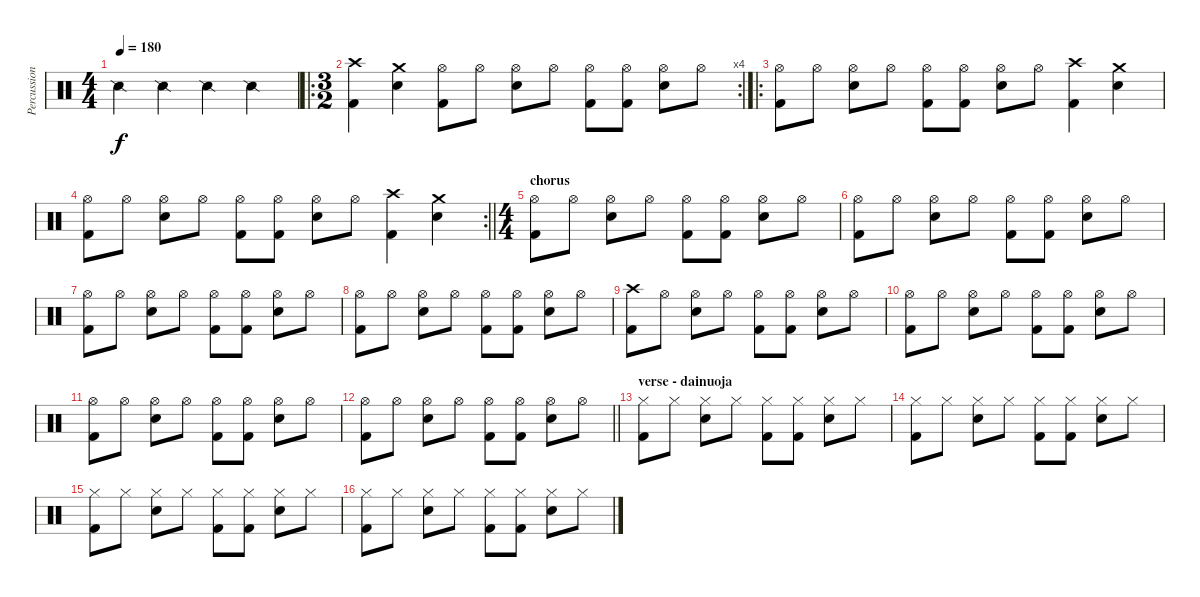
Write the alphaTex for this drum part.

\track ("Percussion" "Percussion") {instrument percussion}
\staff {score}
\articulation defaults
\ts (4 4)
\tempo 180
\clef neutral
\ks c "Snare (side stick) 2".4{dy f} "Snare (side stick) 2".4 "Snare (side stick) 2".4 "Snare (side stick) 2".4
|
\ro
\rc 4
\ts (3 2)
("Crash high (hit)" "Kick (hit) 2").4 ("Crash medium (hit)" "Snare (hit) 2").4 ("Hi-Hat (open)" "Kick (hit) 2").8 "Hi-Hat (open)".8 ("Hi-Hat (open)" "Snare (hit) 2").8 "Hi-Hat (open)".8 ("Hi-Hat (open)" "Kick (hit) 2").8 ("Hi-Hat (open)" "Kick (hit) 2").8 ("Hi-Hat (open)" "Snare (hit) 2").8 "Hi-Hat (open)".8 |
\ro
("Hi-Hat (open)" "Kick (hit) 2").8 "Hi-Hat (open)".8 ("Hi-Hat (open)" "Snare (hit) 2").8 "Hi-Hat (open)".8 ("Hi-Hat (open)" "Kick (hit) 2").8 ("Hi-Hat (open)" "Kick (hit) 2").8 ("Hi-Hat (open)" "Snare (hit) 2").8 "Hi-Hat (open)".8 ("Crash high (hit)" "Kick (hit) 2").4 ("Crash medium (hit)" "Snare (hit) 2").4 |
\rc 2
\barLineRight lightlight
("Hi-Hat (open)" "Kick (hit) 2").8 "Hi-Hat (open)".8 ("Hi-Hat (open)" "Snare (hit) 2").8 "Hi-Hat (open)".8 ("Hi-Hat (open)" "Kick (hit) 2").8 ("Hi-Hat (open)" "Kick (hit) 2").8 ("Hi-Hat (open)" "Snare (hit) 2").8 "Hi-Hat (open)".8 ("Crash high (hit)" "Kick (hit) 2").4 ("Crash medium (hit)" "Snare (hit) 2").4 |
\ts (4 4)
\section ("" "chorus")
("Hi-Hat (open)" "Kick (hit) 2").8 "Hi-Hat (open)".8 ("Hi-Hat (open)" "Snare (hit) 2").8 "Hi-Hat (open)".8 ("Hi-Hat (open)" "Kick (hit) 2").8 ("Hi-Hat (open)" "Kick (hit) 2").8 ("Hi-Hat (open)" "Snare (hit) 2").8 "Hi-Hat (open)".8 |
("Hi-Hat (open)" "Kick (hit) 2").8 "Hi-Hat (open)".8 ("Hi-Hat (open)" "Snare (hit) 2").8 "Hi-Hat (open)".8 ("Hi-Hat (open)" "Kick (hit) 2").8 ("Hi-Hat (open)" "Kick (hit) 2").8 ("Hi-Hat (open)" "Snare (hit) 2").8 "Hi-Hat (open)".8 |
("Hi-Hat (open)" "Kick (hit) 2").8 "Hi-Hat (open)".8 ("Hi-Hat (open)" "Snare (hit) 2").8 "Hi-Hat (open)".8 ("Hi-Hat (open)" "Kick (hit) 2").8 ("Hi-Hat (open)" "Kick (hit) 2").8 ("Hi-Hat (open)" "Snare (hit) 2").8 "Hi-Hat (open)".8 |
("Hi-Hat (open)" "Kick (hit) 2").8 "Hi-Hat (open)".8 ("Hi-Hat (open)" "Snare (hit) 2").8 "Hi-Hat (open)".8 ("Hi-Hat (open)" "Kick (hit) 2").8 ("Hi-Hat (open)" "Kick (hit) 2").8 ("Hi-Hat (open)" "Snare (hit) 2").8 "Hi-Hat (open)".8 |
("Crash high (hit)" "Kick (hit) 2").8 "Hi-Hat (open)".8 ("Hi-Hat (open)" "Snare (hit) 2").8 "Hi-Hat (open)".8 ("Hi-Hat (open)" "Kick (hit) 2").8 ("Hi-Hat (open)" "Kick (hit) 2").8 ("Hi-Hat (open)" "Snare (hit) 2").8 "Hi-Hat (open)".8 |
("Hi-Hat (open)" "Kick (hit) 2").8 "Hi-Hat (open)".8 ("Hi-Hat (open)" "Snare (hit) 2").8 "Hi-Hat (open)".8 ("Hi-Hat (open)" "Kick (hit) 2").8 ("Hi-Hat (open)" "Kick (hit) 2").8 ("Hi-Hat (open)" "Snare (hit) 2").8 "Hi-Hat (open)".8 |
("Hi-Hat (open)" "Kick (hit) 2").8 "Hi-Hat (open)".8 ("Hi-Hat (open)" "Snare (hit) 2").8 "Hi-Hat (open)".8 ("Hi-Hat (open)" "Kick (hit) 2").8 ("Hi-Hat (open)" "Kick (hit) 2").8 ("Hi-Hat (open)" "Snare (hit) 2").8 "Hi-Hat (open)".8 |
\barLineRight lightlight
("Hi-Hat (open)" "Kick (hit) 2").8 "Hi-Hat (open)".8 ("Hi-Hat (open)" "Snare (hit) 2").8 "Hi-Hat (open)".8 ("Hi-Hat (open)" "Kick (hit) 2").8 ("Hi-Hat (open)" "Kick (hit) 2").8 ("Hi-Hat (open)" "Snare (hit) 2").8 "Hi-Hat (open)".8 |
\section ("" "verse - dainuoja")
("Hi-Hat (closed)" "Kick (hit) 2").8 "Hi-Hat (closed)".8 ("Hi-Hat (closed)" "Snare (hit) 2").8 "Hi-Hat (closed)".8 ("Hi-Hat (closed)" "Kick (hit) 2").8 ("Hi-Hat (closed)" "Kick (hit) 2").8 ("Hi-Hat (closed)" "Snare (hit) 2").8 "Hi-Hat (closed)".8 |
("Hi-Hat (closed)" "Kick (hit) 2").8 "Hi-Hat (closed)".8 ("Hi-Hat (closed)" "Snare (hit) 2").8 "Hi-Hat (closed)".8 ("Hi-Hat (closed)" "Kick (hit) 2").8 ("Hi-Hat (closed)" "Kick (hit) 2").8 ("Hi-Hat (closed)" "Snare (hit) 2").8 "Hi-Hat (closed)".8 |
("Hi-Hat (closed)" "Kick (hit) 2").8 "Hi-Hat (closed)".8 ("Hi-Hat (closed)" "Snare (hit) 2").8 "Hi-Hat (closed)".8 ("Hi-Hat (closed)" "Kick (hit) 2").8 ("Hi-Hat (closed)" "Kick (hit) 2").8 ("Hi-Hat (closed)" "Snare (hit) 2").8 "Hi-Hat (closed)".8 |
("Hi-Hat (closed)" "Kick (hit) 2").8 "Hi-Hat (closed)".8 ("Hi-Hat (closed)" "Snare (hit) 2").8 "Hi-Hat (closed)".8 ("Hi-Hat (closed)" "Kick (hit) 2").8 ("Hi-Hat (closed)" "Kick (hit) 2").8 ("Hi-Hat (closed)" "Snare (hit) 2").8 "Hi-Hat (closed)".8
